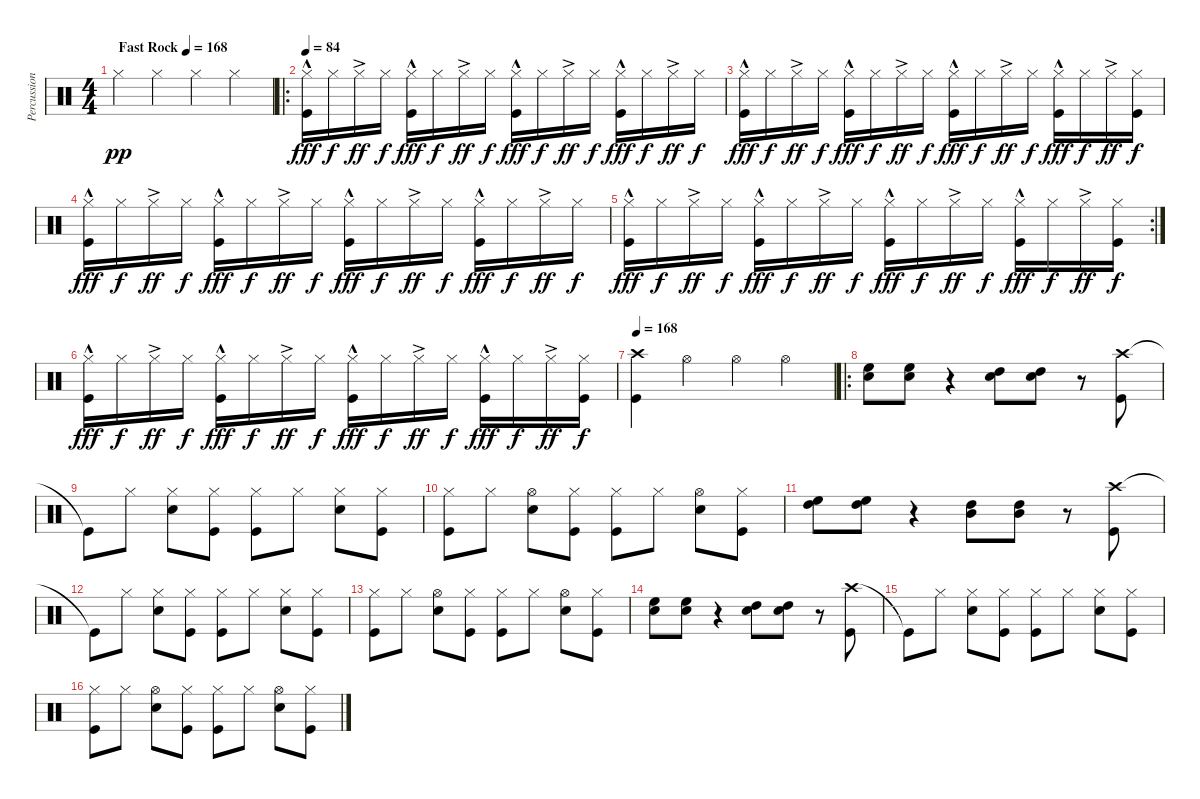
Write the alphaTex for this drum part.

\track ("Percussions" "Percussion") {instrument percussion}
\staff {score}
\articulation defaults
\ts (4 4)
\tempo (168 "Fast Rock")
\clef neutral
\ks c "Hi-Hat (closed)".4{dy pp} "Hi-Hat (closed)".4 "Hi-Hat (closed)".4 "Hi-Hat (closed)".4
|
\ro
\tempo 84
("Hi-Hat (closed)"{hac} "Kick (hit)").16{dy fff} "Hi-Hat (closed)".16{dy f} "Hi-Hat (closed)"{ac}.16{dy ff} "Hi-Hat (closed)".16{dy f} ("Hi-Hat (closed)"{hac} "Kick (hit)").16{dy fff} "Hi-Hat (closed)".16{dy f} "Hi-Hat (closed)"{ac}.16{dy ff} "Hi-Hat (closed)".16{dy f} ("Hi-Hat (closed)"{hac} "Kick (hit)").16{dy fff} "Hi-Hat (closed)".16{dy f} "Hi-Hat (closed)"{ac}.16{dy ff} "Hi-Hat (closed)".16{dy f} ("Hi-Hat (closed)"{hac} "Kick (hit)").16{dy fff} "Hi-Hat (closed)".16{dy f} "Hi-Hat (closed)"{ac}.16{dy ff} "Hi-Hat (closed)".16{dy f} |
("Hi-Hat (closed)"{hac} "Kick (hit)").16{dy fff} "Hi-Hat (closed)".16{dy f} "Hi-Hat (closed)"{ac}.16{dy ff} "Hi-Hat (closed)".16{dy f} ("Hi-Hat (closed)"{hac} "Kick (hit)").16{dy fff} "Hi-Hat (closed)".16{dy f} "Hi-Hat (closed)"{ac}.16{dy ff} "Hi-Hat (closed)".16{dy f} ("Hi-Hat (closed)"{hac} "Kick (hit)").16{dy fff} "Hi-Hat (closed)".16{dy f} "Hi-Hat (closed)"{ac}.16{dy ff} "Hi-Hat (closed)".16{dy f} ("Hi-Hat (closed)"{hac} "Kick (hit)").16{dy fff} "Hi-Hat (closed)".16{dy f} "Hi-Hat (closed)"{ac}.16{dy ff} ("Hi-Hat (closed)" "Kick (hit)").16{dy f} |
("Hi-Hat (closed)"{hac} "Kick (hit)").16{dy fff} "Hi-Hat (closed)".16{dy f} "Hi-Hat (closed)"{ac}.16{dy ff} "Hi-Hat (closed)".16{dy f} ("Hi-Hat (closed)"{hac} "Kick (hit)").16{dy fff} "Hi-Hat (closed)".16{dy f} "Hi-Hat (closed)"{ac}.16{dy ff} "Hi-Hat (closed)".16{dy f} ("Hi-Hat (closed)"{hac} "Kick (hit)").16{dy fff} "Hi-Hat (closed)".16{dy f} "Hi-Hat (closed)"{ac}.16{dy ff} "Hi-Hat (closed)".16{dy f} ("Hi-Hat (closed)"{hac} "Kick (hit)").16{dy fff} "Hi-Hat (closed)".16{dy f} "Hi-Hat (closed)"{ac}.16{dy ff} "Hi-Hat (closed)".16{dy f} |
\rc 2
("Hi-Hat (closed)"{hac} "Kick (hit)").16{dy fff} "Hi-Hat (closed)".16{dy f} "Hi-Hat (closed)"{ac}.16{dy ff} "Hi-Hat (closed)".16{dy f} ("Hi-Hat (closed)"{hac} "Kick (hit)").16{dy fff} "Hi-Hat (closed)".16{dy f} "Hi-Hat (closed)"{ac}.16{dy ff} "Hi-Hat (closed)".16{dy f} ("Hi-Hat (closed)"{hac} "Kick (hit)").16{dy fff} "Hi-Hat (closed)".16{dy f} "Hi-Hat (closed)"{ac}.16{dy ff} "Hi-Hat (closed)".16{dy f} ("Hi-Hat (closed)"{hac} "Kick (hit)").16{dy fff} "Hi-Hat (closed)".16{dy f} "Hi-Hat (closed)"{ac}.16{dy ff} ("Hi-Hat (closed)" "Kick (hit)").16{dy f} |
("Hi-Hat (closed)"{hac} "Kick (hit)").16{dy fff} "Hi-Hat (closed)".16{dy f} "Hi-Hat (closed)"{ac}.16{dy ff} "Hi-Hat (closed)".16{dy f} ("Hi-Hat (closed)"{hac} "Kick (hit)").16{dy fff} "Hi-Hat (closed)".16{dy f} "Hi-Hat (closed)"{ac}.16{dy ff} "Hi-Hat (closed)".16{dy f} ("Hi-Hat (closed)"{hac} "Kick (hit)").16{dy fff} "Hi-Hat (closed)".16{dy f} "Hi-Hat (closed)"{ac}.16{dy ff} "Hi-Hat (closed)".16{dy f} ("Hi-Hat (closed)"{hac} "Kick (hit)").16{dy fff} "Hi-Hat (closed)".16{dy f} "Hi-Hat (closed)"{ac}.16{dy ff} ("Hi-Hat (closed)" "Kick (hit)").16{dy f} |
\tempo 168
("Crash high (hit)" "Kick (hit)").4 "Hi-Hat (open)".4 "Hi-Hat (open)".4 "Hi-Hat (open)".4 |
\ro
("High Floor Tom (hit)" "Snare (hit) 2").8 ("High Floor Tom (hit)" "Snare (hit) 2").8 r.4 ("High Tom (hit)" "Snare (hit) 2").8 ("High Tom (hit)" "Snare (hit) 2").8 r.8 ("Crash high (hit)" "Kick (hit)").8 |
"Kick (hit)"{t}.8 "Hi-Hat (closed)".8 ("Hi-Hat (closed)" "Snare (hit) 2").8 ("Hi-Hat (closed)" "Kick (hit)").8 ("Hi-Hat (closed)" "Kick (hit)").8 "Hi-Hat (closed)".8 ("Hi-Hat (closed)" "Snare (hit) 2").8 ("Hi-Hat (closed)" "Kick (hit)").8 |
("Hi-Hat (closed)" "Kick (hit)").8 "Hi-Hat (closed)".8 ("Hi-Hat (open)" "Snare (hit) 2").8 ("Hi-Hat (closed)" "Kick (hit)").8 ("Hi-Hat (closed)" "Kick (hit)").8 "Hi-Hat (closed)".8 ("Hi-Hat (open)" "Snare (hit) 2").8 ("Hi-Hat (closed)" "Kick (hit)").8 |
("High Floor Tom (hit)" "High Tom (hit)").8 ("High Floor Tom (hit)" "High Tom (hit)").8 r.4 ("High Tom (hit)" "Mid Tom (hit)").8 ("High Tom (hit)" "Mid Tom (hit)").8 r.8 ("Crash high (hit)" "Kick (hit)").8 |
"Kick (hit)"{t}.8 "Hi-Hat (closed)".8 ("Hi-Hat (closed)" "Snare (hit) 2").8 ("Hi-Hat (closed)" "Kick (hit)").8 ("Hi-Hat (closed)" "Kick (hit)").8 "Hi-Hat (closed)".8 ("Hi-Hat (closed)" "Snare (hit) 2").8 ("Hi-Hat (closed)" "Kick (hit)").8 |
("Hi-Hat (closed)" "Kick (hit)").8 "Hi-Hat (closed)".8 ("Hi-Hat (open)" "Snare (hit) 2").8 ("Hi-Hat (closed)" "Kick (hit)").8 ("Hi-Hat (closed)" "Kick (hit)").8 "Hi-Hat (closed)".8 ("Hi-Hat (open)" "Snare (hit) 2").8 ("Hi-Hat (closed)" "Kick (hit)").8 |
("High Floor Tom (hit)" "Snare (hit) 2").8 ("High Floor Tom (hit)" "Snare (hit) 2").8 r.4 ("High Tom (hit)" "Snare (hit) 2").8 ("High Tom (hit)" "Snare (hit) 2").8 r.8 ("Crash high (hit)" "Kick (hit)").8 |
"Kick (hit)"{t}.8 "Hi-Hat (closed)".8 ("Hi-Hat (closed)" "Snare (hit) 2").8 ("Hi-Hat (closed)" "Kick (hit)").8 ("Hi-Hat (closed)" "Kick (hit)").8 "Hi-Hat (closed)".8 ("Hi-Hat (closed)" "Snare (hit) 2").8 ("Hi-Hat (closed)" "Kick (hit)").8 |
("Hi-Hat (closed)" "Kick (hit)").8 "Hi-Hat (closed)".8 ("Hi-Hat (open)" "Snare (hit) 2").8 ("Hi-Hat (closed)" "Kick (hit)").8 ("Hi-Hat (closed)" "Kick (hit)").8 "Hi-Hat (closed)".8 ("Hi-Hat (open)" "Snare (hit) 2").8 ("Hi-Hat (closed)" "Kick (hit)").8
